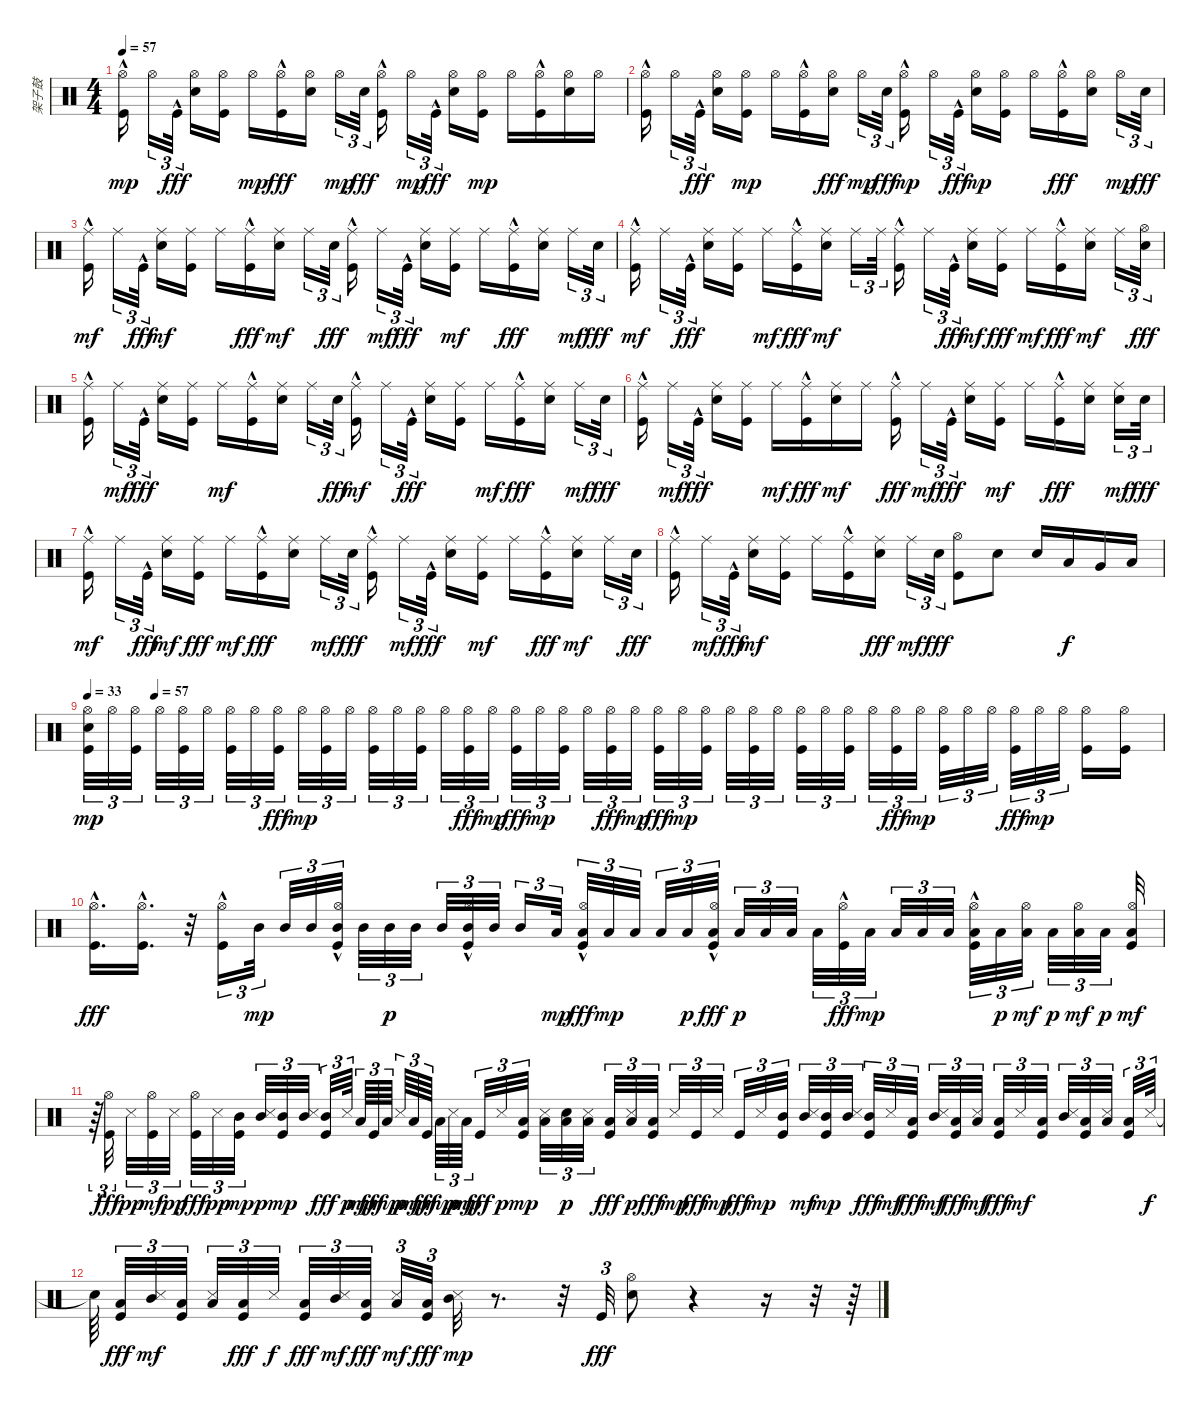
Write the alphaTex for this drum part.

\track ("架子鼓" "架子鼓") {instrument percussion}
\staff {score}
\articulation defaults
\ts (4 4)
\tempo 57
\clef neutral
\ks c
("Kick (hit)"{hac} "Hi-Hat (open)").16{dy mp} "Hi-Hat (open)".16{tu (3 2)} "Kick (hit)"{hac}.32{tu (3 2) dy fff} ("Hi-Hat (open)" "Electric Snare (hit)").16 ("Hi-Hat (open)" "Kick (hit)").16 "Hi-Hat (open)".16{dy mp} ("Hi-Hat (open)" "Kick (hit)"{hac}).16{dy fff} ("Hi-Hat (open)" "Electric Snare (hit)").16 "Hi-Hat (open)".16{tu (3 2) dy mp} "Electric Snare (hit)".32{tu (3 2) dy fff} ("Hi-Hat (open)" "Kick (hit)"{hac}).16 "Hi-Hat (open)".16{tu (3 2) dy mp} "Kick (hit)"{hac}.32{tu (3 2) dy fff} ("Hi-Hat (open)" "Electric Snare (hit)").16 ("Kick (hit)" "Hi-Hat (open)").16{dy mp} "Hi-Hat (open)".16 ("Kick (hit)"{hac} "Hi-Hat (open)").16 ("Electric Snare (hit)" "Hi-Hat (open)").16 "Hi-Hat (open)".16 |
("Kick (hit)"{hac} "Hi-Hat (open)").16 "Hi-Hat (open)".16{tu (3 2)} "Kick (hit)"{hac}.32{tu (3 2) dy fff} ("Hi-Hat (open)" "Electric Snare (hit)").16 ("Kick (hit)" "Hi-Hat (open)").16{dy mp} "Hi-Hat (open)".16 ("Kick (hit)"{hac} "Hi-Hat (open)").16 ("Hi-Hat (open)" "Electric Snare (hit)").16{dy fff} "Hi-Hat (open)".16{tu (3 2) dy mp} "Electric Snare (hit)".32{tu (3 2) dy fff} ("Kick (hit)"{hac} "Hi-Hat (open)").16{dy mp} "Hi-Hat (open)".16{tu (3 2)} "Kick (hit)"{hac}.32{tu (3 2) dy fff} ("Electric Snare (hit)" "Hi-Hat (open)").16{dy mp} ("Kick (hit)" "Hi-Hat (open)").16 "Hi-Hat (open)".16 ("Hi-Hat (open)" "Kick (hit)"{hac}).16{dy fff} ("Hi-Hat (open)" "Electric Snare (hit)").16 "Hi-Hat (open)".16{tu (3 2) dy mp} "Electric Snare (hit)".32{tu (3 2) dy fff} |
("Kick (hit)"{hac} "Ride (middle)").16{dy mf} "Ride (middle)".16{tu (3 2)} "Kick (hit)"{hac}.32{tu (3 2) dy fff} ("Electric Snare (hit)" "Ride (middle)").16{dy mf} ("Kick (hit)" "Ride (middle)").16 "Ride (middle)".16 ("Ride (middle)" "Kick (hit)"{hac}).16{dy fff} ("Electric Snare (hit)" "Ride (middle)").16{dy mf} "Ride (middle)".16{tu (3 2)} "Electric Snare (hit)".32{tu (3 2) dy fff} ("Ride (middle)" "Kick (hit)"{hac}).16 "Ride (middle)".16{tu (3 2) dy mf} "Kick (hit)"{hac}.32{tu (3 2) dy fff} ("Ride (middle)" "Electric Snare (hit)").16 ("Kick (hit)" "Ride (middle)").16{dy mf} "Ride (middle)".16 ("Ride (middle)" "Kick (hit)"{hac}).16{dy fff} ("Ride (middle)" "Electric Snare (hit)").16 "Ride (middle)".16{tu (3 2) dy mf} "Electric Snare (hit)".32{tu (3 2) dy fff} |
("Kick (hit)"{hac} "Ride (middle)").16{dy mf} "Ride (middle)".16{tu (3 2)} "Kick (hit)"{hac}.32{tu (3 2) dy fff} ("Ride (middle)" "Electric Snare (hit)").16 ("Ride (middle)" "Kick (hit)").16 "Ride (middle)".16{dy mf} ("Ride (middle)" "Kick (hit)"{hac}).16{dy fff} ("Electric Snare (hit)" "Ride (middle)").16{dy mf} "Ride (middle)".16{tu (3 2)} "Ride (middle)".32{tu (3 2)} ("Kick (hit)"{hac} "Ride (middle)").16 "Ride (middle)".16{tu (3 2)} "Kick (hit)"{hac}.32{tu (3 2) dy fff} ("Electric Snare (hit)" "Ride (middle)").16{dy mf} ("Ride (middle)" "Kick (hit)").16{dy fff} "Ride (middle)".16{dy mf} ("Ride (middle)" "Kick (hit)"{hac}).16{dy fff} ("Electric Snare (hit)" "Ride (middle)").16{dy mf} "Ride (middle)".16{tu (3 2)} ("Hi-Hat (open)" "Electric Snare (hit)").32{tu (3 2) dy fff} |
("Ride (middle)" "Kick (hit)"{hac}).16 "Ride (middle)".16{tu (3 2) dy mf} "Kick (hit)"{hac}.32{tu (3 2) dy fff} ("Ride (middle)" "Electric Snare (hit)").16 ("Ride (middle)" "Kick (hit)").16 "Ride (middle)".16{dy mf} ("Kick (hit)"{hac} "Ride (middle)").16 ("Electric Snare (hit)" "Ride (middle)").16 "Ride (middle)".16{tu (3 2)} "Electric Snare (hit)".32{tu (3 2) dy fff} ("Kick (hit)"{hac} "Ride (middle)").16{dy mf} "Ride (middle)".16{tu (3 2)} "Kick (hit)"{hac}.32{tu (3 2) dy fff} ("Ride (middle)" "Electric Snare (hit)").16 ("Ride (middle)" "Kick (hit)").16 "Ride (middle)".16{dy mf} ("Ride (middle)" "Kick (hit)"{hac}).16{dy fff} ("Ride (middle)" "Electric Snare (hit)").16 "Ride (middle)".16{tu (3 2) dy mf} "Electric Snare (hit)".32{tu (3 2) dy fff} |
("Ride (middle)" "Kick (hit)"{hac}).16 "Ride (middle)".16{tu (3 2) dy mf} "Kick (hit)"{hac}.32{tu (3 2) dy fff} ("Ride (middle)" "Electric Snare (hit)").16 ("Ride (middle)" "Kick (hit)").16 "Ride (middle)".16{dy mf} ("Ride (middle)" "Kick (hit)"{hac}).16{dy fff} ("Electric Snare (hit)" "Ride (middle)").16{dy mf} "Ride (middle)".16 ("Ride (middle)" "Kick (hit)"{hac}).16{dy fff} "Ride (middle)".16{tu (3 2) dy mf} "Kick (hit)"{hac}.32{tu (3 2) dy fff} ("Ride (middle)" "Electric Snare (hit)").16 ("Kick (hit)" "Ride (middle)").16{dy mf} "Ride (middle)".16 ("Ride (middle)" "Kick (hit)"{hac}).16{dy fff} ("Ride (middle)" "Electric Snare (hit)").16 ("Electric Snare (hit)" "Ride (middle)").16{tu (3 2) dy mf} "Electric Snare (hit)".32{tu (3 2) dy fff} |
("Kick (hit)"{hac} "Ride (middle)").16{dy mf} "Ride (middle)".16{tu (3 2)} "Kick (hit)"{hac}.32{tu (3 2) dy fff} ("Electric Snare (hit)" "Ride (middle)").16{dy mf} ("Ride (middle)" "Kick (hit)").16{dy fff} "Ride (middle)".16{dy mf} ("Ride (middle)" "Kick (hit)"{hac}).16{dy fff} ("Ride (middle)" "Electric Snare (hit)").16 "Ride (middle)".16{tu (3 2) dy mf} "Electric Snare (hit)".32{tu (3 2) dy fff} ("Ride (middle)" "Kick (hit)"{hac}).16 "Ride (middle)".16{tu (3 2) dy mf} "Kick (hit)"{hac}.32{tu (3 2) dy fff} ("Ride (middle)" "Electric Snare (hit)").16 ("Kick (hit)" "Ride (middle)").16{dy mf} "Ride (middle)".16 ("Ride (middle)" "Kick (hit)"{hac}).16{dy fff} ("Electric Snare (hit)" "Ride (middle)").16{dy mf} "Ride (middle)".16{tu (3 2)} "Electric Snare (hit)".32{tu (3 2) dy fff} |
("Ride (middle)" "Kick (hit)"{hac}).16 "Ride (middle)".16{tu (3 2) dy mf} "Kick (hit)"{hac}.32{tu (3 2) dy fff} ("Electric Snare (hit)" "Ride (middle)").16{dy mf} ("Kick (hit)" "Ride (middle)").16 "Ride (middle)".16 ("Kick (hit)"{hac} "Ride (middle)").16 ("Ride (middle)" "Electric Snare (hit)").16{dy fff} "Ride (middle)".16{tu (3 2) dy mf} "Electric Snare (hit)".32{tu (3 2) dy fff} ("Kick (hit)" "Hi-Hat (open)").8 "Electric Snare (hit)".8 "Electric Snare (hit)".16 "Low Tom (hit)".16{dy f} "Very Low Tom (hit)".16 "Low Floor Tom (hit)".16 |
\tempo 33
\tempo (57 0.0625)
("Kick (hit)" "Electric Snare (hit)" "Hi-Hat (open)").32{tu (3 2) dy mp} "Hi-Hat (open)".32{tu (3 2)} ("Kick (hit)" "Hi-Hat (open)").32{tu (3 2)} "Hi-Hat (open)".32{tu (3 2)} ("Kick (hit)" "Hi-Hat (open)").32{tu (3 2)} "Hi-Hat (open)".32{tu (3 2)} ("Kick (hit)" "Hi-Hat (open)").32{tu (3 2)} "Hi-Hat (open)".32{tu (3 2)} ("Hi-Hat (open)" "Kick (hit)").32{tu (3 2) dy fff} "Hi-Hat (open)".32{tu (3 2) dy mp} ("Kick (hit)" "Hi-Hat (open)").32{tu (3 2)} "Hi-Hat (open)".32{tu (3 2)} ("Kick (hit)" "Hi-Hat (open)").32{tu (3 2)} "Hi-Hat (open)".32{tu (3 2)} ("Kick (hit)" "Hi-Hat (open)").32{tu (3 2)} "Hi-Hat (open)".32{tu (3 2)} ("Hi-Hat (open)" "Kick (hit)").32{tu (3 2) dy fff} "Hi-Hat (open)".32{tu (3 2) dy mp} ("Hi-Hat (open)" "Kick (hit)").32{tu (3 2) dy fff} "Hi-Hat (open)".32{tu (3 2) dy mp} ("Kick (hit)" "Hi-Hat (open)").32{tu (3 2)} "Hi-Hat (open)".32{tu (3 2)} ("Hi-Hat (open)" "Kick (hit)").32{tu (3 2) dy fff} "Hi-Hat (open)".32{tu (3 2) dy mp} ("Hi-Hat (open)" "Kick (hit)").32{tu (3 2) dy fff} "Hi-Hat (open)".32{tu (3 2) dy mp} ("Kick (hit)" "Hi-Hat (open)").32{tu (3 2)} "Hi-Hat (open)".32{tu (3 2)} ("Kick (hit)" "Hi-Hat (open)").32{tu (3 2)} "Hi-Hat (open)".32{tu (3 2)} ("Kick (hit)" "Hi-Hat (open)").32{tu (3 2)} "Hi-Hat (open)".32{tu (3 2)} ("Kick (hit)" "Hi-Hat (open)").32{tu (3 2)} "Hi-Hat (open)".32{tu (3 2)} ("Hi-Hat (open)" "Kick (hit)").32{tu (3 2) dy fff} "Hi-Hat (open)".32{tu (3 2) dy mp} ("Kick (hit)" "Hi-Hat (open)").32{tu (3 2)} "Hi-Hat (open)".32{tu (3 2)} "Hi-Hat (open)".32{tu (3 2)} ("Hi-Hat (open)" "Kick (hit)").32{tu (3 2) dy fff} "Hi-Hat (open)".32{tu (3 2) dy mp} "Hi-Hat (open)".32{tu (3 2)} ("Kick (hit)" "Hi-Hat (open)").16 ("Kick (hit)" "Hi-Hat (open)").16 |
("Kick (hit)"{hac} "Hi-Hat (open)"{hac}).16{d dy fff} ("Hi-Hat (open)"{hac} "Kick (hit)"{hac}).16{d} r.32 ("Hi-Hat (open)"{hac} "Kick (hit)"{hac}).16{tu (3 2)} "Mid Tom (hit)".32{tu (3 2) dy mp} "Mid Tom (hit)".32{tu (3 2)} "Mid Tom (hit)".32{tu (3 2)} ("Kick (hit)"{hac} "Hi-Hat (open)"{hac} "Mid Tom (hit)").32{tu (3 2)} "Mid Tom (hit)".32{tu (3 2)} "Mid Tom (hit)".32{tu (3 2) dy p} "Mid Tom (hit)".32{tu (3 2)} "Mid Tom (hit)".32{tu (3 2)} ("Hi-Hat (open)"{hac} "Kick (hit)"{hac} "Mid Tom (hit)").32{tu (3 2)} "Mid Tom (hit)".32{tu (3 2)} "Mid Tom (hit)".16{tu (3 2)} "Low Tom (hit)".32{tu (3 2) dy mp} ("Hi-Hat (open)"{hac} "Low Tom (hit)" "Kick (hit)"{hac}).32{tu (3 2) dy fff} "Low Tom (hit)".32{tu (3 2) dy mp} "Low Tom (hit)".32{tu (3 2)} "Low Tom (hit)".32{tu (3 2)} "Low Tom (hit)".32{tu (3 2) dy p} ("Low Tom (hit)" "Kick (hit)"{hac} "Hi-Hat (open)"{hac}).32{tu (3 2) dy fff} "Low Tom (hit)".32{tu (3 2) dy p} "Low Tom (hit)".32{tu (3 2)} "Low Tom (hit)".32{tu (3 2)} "Low Tom (hit)".32{tu (3 2)} ("Hi-Hat (open)"{hac} "Kick (hit)"{hac}).32{tu (3 2) dy fff} "Low Floor Tom (hit)".32{tu (3 2) dy mp} "Low Floor Tom (hit)".32{tu (3 2)} "Low Floor Tom (hit)".32{tu (3 2)} "Low Floor Tom (hit)".32{tu (3 2)} ("Hi-Hat (open)" "Kick (hit)"{hac} "Low Floor Tom (hit)").32{tu (3 2)} "Low Floor Tom (hit)".32{tu (3 2) dy p} ("Low Floor Tom (hit)" "Hi-Hat (open)").32{tu (3 2) dy mf} "Low Floor Tom (hit)".32{tu (3 2) dy p} ("Low Floor Tom (hit)" "Hi-Hat (open)").32{tu (3 2) dy mf} "Low Floor Tom (hit)".32{tu (3 2) dy p} ("Kick (hit)" "Low Floor Tom (hit)" "Hi-Hat (open)").32{dy mf} |
r.64{tu (3 2)} ("Hi-Hat (open)" "Kick (hit)").32{tu (3 2) dy fff} "Metronome (hit)".32{tu (3 2) dy pp} ("Kick (hit)" "Hi-Hat (open)").32{tu (3 2) dy mf} "Metronome (hit)".32{tu (3 2) dy pp} ("Hi-Hat (open)" "Kick (hit)").32{tu (3 2) dy fff} "Metronome (hit)".32{tu (3 2) dy pp} ("Kick (hit)" "Mid Tom (hit)").32{tu (3 2) dy mp} ("Mid Tom (hit)" "Metronome (hit)").32{tu (3 2) dy p} ("Kick (hit)" "Mid Tom (hit)").32{tu (3 2) dy mp} ("Metronome (hit)" "Mid Tom (hit)").32{tu (3 2)} ("Mid Tom (hit)" "Kick (hit)").32{tu (3 2) dy fff} "Metronome (hit)".64{tu (3 2) dy p} "Low Tom (hit)".64{tu (3 2) dy mp} "Kick (hit)".64{tu (3 2) dy fff} "Low Tom (hit)".64{tu (3 2) dy mp} "Metronome (hit)".64{tu (3 2) dy p} "Low Tom (hit)".64{tu (3 2) dy mp} "Kick (hit)".64{tu (3 2) dy fff} "Low Tom (hit)".64{tu (3 2) dy mp} "Metronome (hit)".64{tu (3 2) dy p} "Low Tom (hit)".64{tu (3 2) dy mp} "Kick (hit)".32{tu (3 2) dy fff} "Metronome (hit)".32{tu (3 2) dy p} ("Kick (hit)" "Low Floor Tom (hit)").32{tu (3 2) dy mp} ("Metronome (hit)" "Low Floor Tom (hit)").32{tu (3 2)} ("Electric Snare (hit)" "Low Floor Tom (hit)").32{tu (3 2) dy p} ("Metronome (hit)" "Low Floor Tom (hit)").32{tu (3 2)} ("Low Floor Tom (hit)" "Kick (hit)").32{tu (3 2) dy fff} ("Metronome (hit)" "Low Floor Tom (hit)").32{tu (3 2) dy p} ("Low Floor Tom (hit)" "Kick (hit)").32{tu (3 2) dy fff} "Metronome (hit)".32{tu (3 2) dy mp} "Kick (hit)".32{tu (3 2) dy fff} "Metronome (hit)".32{tu (3 2) dy mp} "Kick (hit)".32{tu (3 2) dy fff} "Metronome (hit)".32{tu (3 2) dy mp} ("Kick (hit)" "Mid Tom (hit)").32{tu (3 2)} ("Mid Tom (hit)" "Metronome (hit)").32{tu (3 2) dy mf} ("Kick (hit)" "Mid Tom (hit)").32{tu (3 2) dy mp} ("Metronome (hit)" "Mid Tom (hit)").32{tu (3 2)} ("Mid Tom (hit)" "Kick (hit)").32{tu (3 2) dy fff} "Metronome (hit)".32{tu (3 2) dy mf} ("Low Floor Tom (hit)" "Kick (hit)").32{tu (3 2) dy fff} ("Metronome (hit)" "Mid Tom (hit)").32{tu (3 2) dy mf} ("Low Tom (hit)" "Kick (hit)").32{tu (3 2) dy fff} ("Metronome (hit)" "Low Floor Tom (hit)").32{tu (3 2) dy mf} ("Low Tom (hit)" "Kick (hit)").32{tu (3 2) dy fff} "Metronome (hit)".32{tu (3 2) dy mf} ("Kick (hit)" "Low Floor Tom (hit)").32{tu (3 2)} ("Mid Tom (hit)" "Metronome (hit)").32{tu (3 2)} ("Kick (hit)" "Low Tom (hit)").32{tu (3 2)} ("Low Floor Tom (hit)" "Metronome (hit)").32{tu (3 2)} ("Kick (hit)" "Low Tom (hit)").32{tu (3 2)} "Metronome (hit)".64{tu (3 2) dy f} |
"Snare (hit)"{t}.64 ("Low Floor Tom (hit)" "Kick (hit)").32{tu (3 2) dy fff} ("Mid Tom (hit)" "Metronome (hit)").32{tu (3 2) dy mf} ("Kick (hit)" "Low Tom (hit)").32{tu (3 2)} ("Metronome (hit)" "Low Floor Tom (hit)").32{tu (3 2)} ("Low Tom (hit)" "Kick (hit)").32{tu (3 2) dy fff} "Metronome (hit)".32{tu (3 2) dy f} ("Low Floor Tom (hit)" "Kick (hit)").32{tu (3 2) dy fff} ("Metronome (hit)" "Mid Tom (hit)").32{tu (3 2) dy mf} ("Low Tom (hit)" "Kick (hit)").32{tu (3 2) dy fff} ("Low Floor Tom (hit)" "Metronome (hit)").32{tu (3 2) dy mf} ("Low Tom (hit)" "Kick (hit)").32{tu (3 2) dy fff} ("Mid Tom (hit)" "Metronome (hit)").32{dy mp} r.8{d} r.32 "Kick (hit)".32{tu (3 2) dy fff} ("Snare (hit) 2" "Hi-Hat (open)").8 r.4 r.16 r.32 r.64
